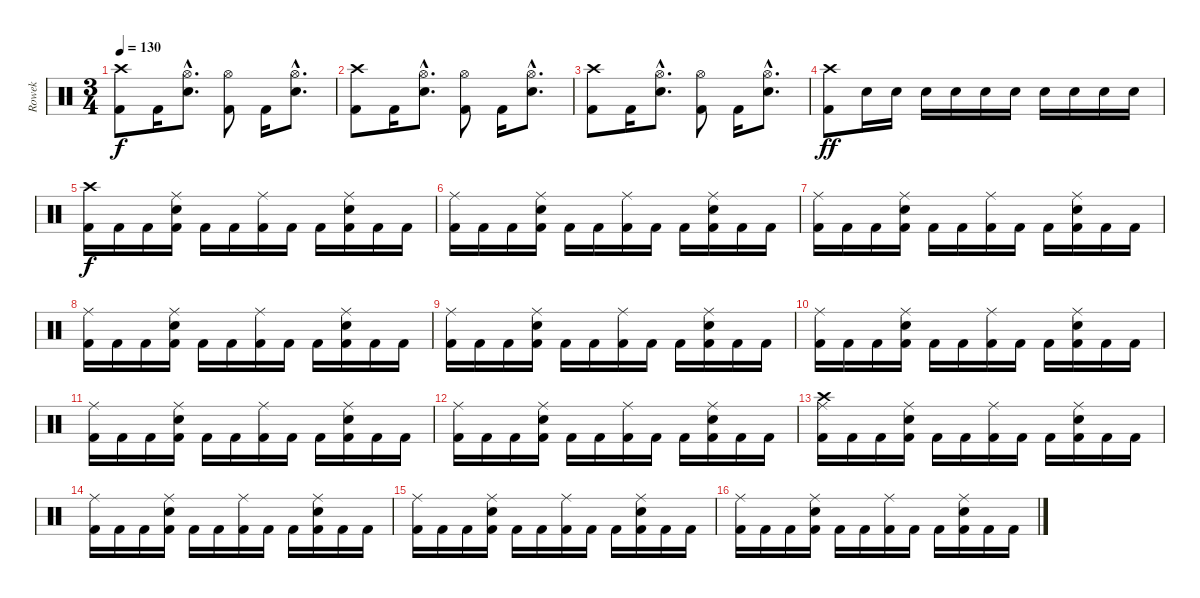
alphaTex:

\track ("Rowek" "Rowek") {instrument percussion}
\staff {score}
\articulation defaults
\ts (3 4)
\tempo 130
\clef neutral
\ks c
("Crash high (hit)" "Kick (hit) 2").8{dy f} "Kick (hit) 2".16 ("Hi-Hat (open)"{hac} "Snare (hit) 2"{hac}).8{d} ("Hi-Hat (open)" "Kick (hit) 2").8 "Kick (hit) 2".16 ("Hi-Hat (open)"{hac} "Snare (hit) 2"{hac}).8{d} |
("Crash high (hit)" "Kick (hit) 2").8 "Kick (hit) 2".16 ("Hi-Hat (open)"{hac} "Snare (hit) 2"{hac}).8{d} ("Hi-Hat (open)" "Kick (hit) 2").8 "Kick (hit) 2".16 ("Hi-Hat (open)"{hac} "Snare (hit) 2"{hac}).8{d} |
("Crash high (hit)" "Kick (hit) 2").8 "Kick (hit) 2".16 ("Hi-Hat (open)"{hac} "Snare (hit) 2"{hac}).8{d} ("Hi-Hat (open)" "Kick (hit) 2").8 "Kick (hit) 2".16 ("Hi-Hat (open)"{hac} "Snare (hit) 2"{hac}).8{d} |
("Kick (hit) 2" "Crash high (hit)").8{dy ff} "Electric Snare (hit)".16 "Electric Snare (hit)".16 "Electric Snare (hit)".16 "Electric Snare (hit)".16 "Electric Snare (hit)".16 "Electric Snare (hit)".16 "Electric Snare (hit)".16 "Electric Snare (hit)".16 "Electric Snare (hit)".16 "Electric Snare (hit)".16 |
("Crash high (hit)" "Kick (hit) 2").16{dy f} "Kick (hit) 2".16 "Kick (hit) 2".16 ("Ride (middle)" "Snare (hit) 2" "Kick (hit) 2").16 "Kick (hit) 2".16 "Kick (hit) 2".16 ("Ride (middle)" "Kick (hit) 2").16 "Kick (hit) 2".16 "Kick (hit) 2".16 ("Ride (middle)" "Snare (hit) 2" "Kick (hit) 2").16 "Kick (hit) 2".16 "Kick (hit) 2".16 |
("Ride (middle)" "Kick (hit) 2").16 "Kick (hit) 2".16 "Kick (hit) 2".16 ("Ride (middle)" "Snare (hit) 2" "Kick (hit) 2").16 "Kick (hit) 2".16 "Kick (hit) 2".16 ("Ride (middle)" "Kick (hit) 2").16 "Kick (hit) 2".16 "Kick (hit) 2".16 ("Ride (middle)" "Snare (hit) 2" "Kick (hit) 2").16 "Kick (hit) 2".16 "Kick (hit) 2".16 |
("Ride (middle)" "Kick (hit) 2").16 "Kick (hit) 2".16 "Kick (hit) 2".16 ("Ride (middle)" "Snare (hit) 2" "Kick (hit) 2").16 "Kick (hit) 2".16 "Kick (hit) 2".16 ("Ride (middle)" "Kick (hit) 2").16 "Kick (hit) 2".16 "Kick (hit) 2".16 ("Ride (middle)" "Snare (hit) 2" "Kick (hit) 2").16 "Kick (hit) 2".16 "Kick (hit) 2".16 |
("Ride (middle)" "Kick (hit) 2").16 "Kick (hit) 2".16 "Kick (hit) 2".16 ("Ride (middle)" "Snare (hit) 2" "Kick (hit) 2").16 "Kick (hit) 2".16 "Kick (hit) 2".16 ("Ride (middle)" "Kick (hit) 2").16 "Kick (hit) 2".16 "Kick (hit) 2".16 ("Ride (middle)" "Snare (hit) 2" "Kick (hit) 2").16 "Kick (hit) 2".16 "Kick (hit) 2".16 |
("Ride (middle)" "Kick (hit) 2").16 "Kick (hit) 2".16 "Kick (hit) 2".16 ("Ride (middle)" "Snare (hit) 2" "Kick (hit) 2").16 "Kick (hit) 2".16 "Kick (hit) 2".16 ("Ride (middle)" "Kick (hit) 2").16 "Kick (hit) 2".16 "Kick (hit) 2".16 ("Ride (middle)" "Snare (hit) 2" "Kick (hit) 2").16 "Kick (hit) 2".16 "Kick (hit) 2".16 |
("Ride (middle)" "Kick (hit) 2").16 "Kick (hit) 2".16 "Kick (hit) 2".16 ("Ride (middle)" "Snare (hit) 2" "Kick (hit) 2").16 "Kick (hit) 2".16 "Kick (hit) 2".16 ("Ride (middle)" "Kick (hit) 2").16 "Kick (hit) 2".16 "Kick (hit) 2".16 ("Ride (middle)" "Snare (hit) 2" "Kick (hit) 2").16 "Kick (hit) 2".16 "Kick (hit) 2".16 |
("Ride (middle)" "Kick (hit) 2").16 "Kick (hit) 2".16 "Kick (hit) 2".16 ("Ride (middle)" "Snare (hit) 2" "Kick (hit) 2").16 "Kick (hit) 2".16 "Kick (hit) 2".16 ("Ride (middle)" "Kick (hit) 2").16 "Kick (hit) 2".16 "Kick (hit) 2".16 ("Ride (middle)" "Snare (hit) 2" "Kick (hit) 2").16 "Kick (hit) 2".16 "Kick (hit) 2".16 |
("Ride (middle)" "Kick (hit) 2").16 "Kick (hit) 2".16 "Kick (hit) 2".16 ("Ride (middle)" "Snare (hit) 2" "Kick (hit) 2").16 "Kick (hit) 2".16 "Kick (hit) 2".16 ("Ride (middle)" "Kick (hit) 2").16 "Kick (hit) 2".16 "Kick (hit) 2".16 ("Ride (middle)" "Snare (hit) 2" "Kick (hit) 2").16 "Kick (hit) 2".16 "Kick (hit) 2".16 |
("Ride (middle)" "Crash high (hit)" "Kick (hit) 2").16 "Kick (hit) 2".16 "Kick (hit) 2".16 ("Ride (middle)" "Snare (hit) 2" "Kick (hit) 2").16 "Kick (hit) 2".16 "Kick (hit) 2".16 ("Ride (middle)" "Kick (hit) 2").16 "Kick (hit) 2".16 "Kick (hit) 2".16 ("Ride (middle)" "Snare (hit) 2" "Kick (hit) 2").16 "Kick (hit) 2".16 "Kick (hit) 2".16 |
("Ride (middle)" "Kick (hit) 2").16 "Kick (hit) 2".16 "Kick (hit) 2".16 ("Ride (middle)" "Snare (hit) 2" "Kick (hit) 2").16 "Kick (hit) 2".16 "Kick (hit) 2".16 ("Ride (middle)" "Kick (hit) 2").16 "Kick (hit) 2".16 "Kick (hit) 2".16 ("Ride (middle)" "Snare (hit) 2" "Kick (hit) 2").16 "Kick (hit) 2".16 "Kick (hit) 2".16 |
("Ride (middle)" "Kick (hit) 2").16 "Kick (hit) 2".16 "Kick (hit) 2".16 ("Ride (middle)" "Snare (hit) 2" "Kick (hit) 2").16 "Kick (hit) 2".16 "Kick (hit) 2".16 ("Ride (middle)" "Kick (hit) 2").16 "Kick (hit) 2".16 "Kick (hit) 2".16 ("Ride (middle)" "Snare (hit) 2" "Kick (hit) 2").16 "Kick (hit) 2".16 "Kick (hit) 2".16 |
("Ride (middle)" "Kick (hit) 2").16 "Kick (hit) 2".16 "Kick (hit) 2".16 ("Ride (middle)" "Snare (hit) 2" "Kick (hit) 2").16 "Kick (hit) 2".16 "Kick (hit) 2".16 ("Ride (middle)" "Kick (hit) 2").16 "Kick (hit) 2".16 "Kick (hit) 2".16 ("Ride (middle)" "Snare (hit) 2" "Kick (hit) 2").16 "Kick (hit) 2".16 "Kick (hit) 2".16
